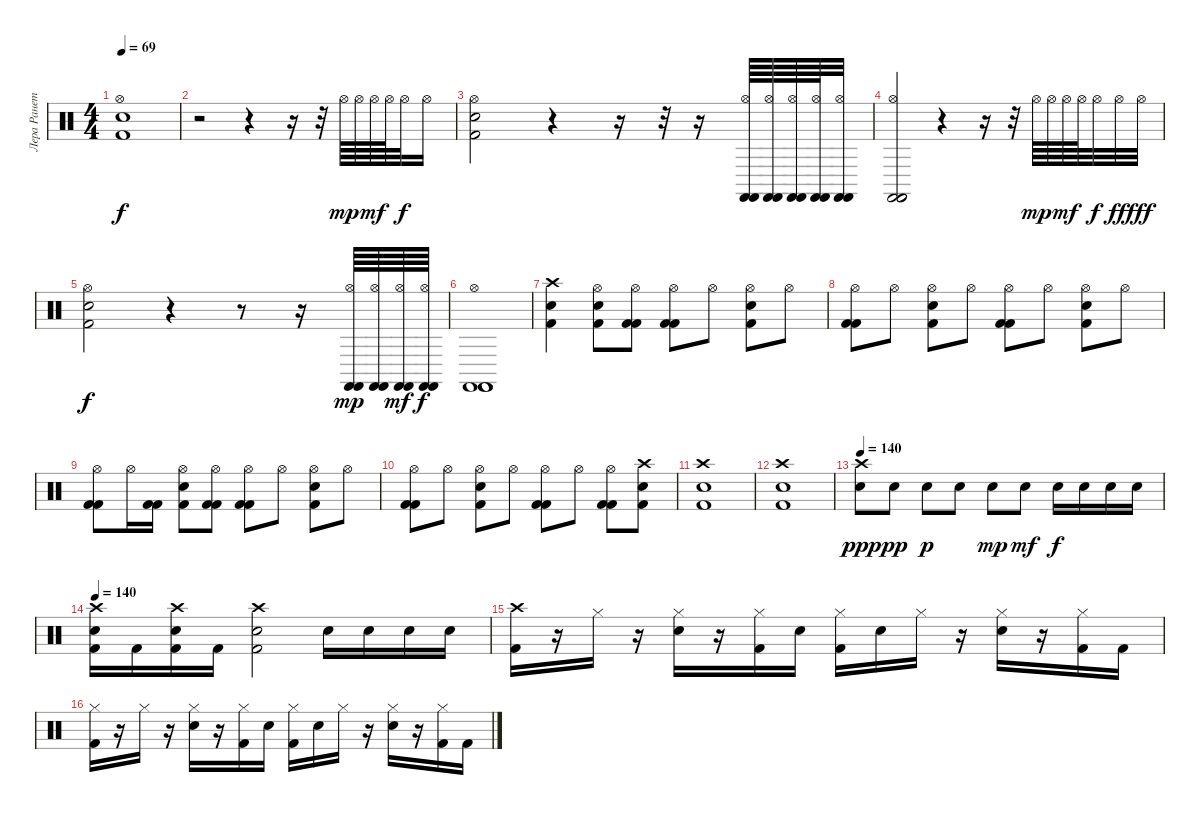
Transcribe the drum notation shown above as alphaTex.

\track ("Лера Ранетка" "Лера Ранет") {instrument percussion}
\staff {score}
\articulation defaults
\ts (4 4)
\tempo 69
\clef neutral
\ks c
("Hi-Hat (open)" "Snare (hit) 2" "Kick (hit) 2").1{dy f} |
r.2 r.4 r.16 r.32 "Hi-Hat (open)".64{dy mp} "Hi-Hat (open)".64 "Hi-Hat (open)".64{dy mf} "Hi-Hat (open)".64 "Hi-Hat (open)".32{dy f} "Hi-Hat (open)".16 |
("Hi-Hat (open)" "Snare (hit) 2" "Kick (hit) 2").2 r.4 r.16 r.32 r.16 ("Castanets (hit)" "Castanets (hit)" "Hi-Hat (open)").64 ("Castanets (hit)" "Castanets (hit)" "Hi-Hat (open)").64 ("Castanets (hit)" "Castanets (hit)" "Hi-Hat (open)").64 ("Castanets (hit)" "Castanets (hit)" "Hi-Hat (open)").64 ("Castanets (hit)" "Castanets (hit)" "Hi-Hat (open)").32 |
("Castanets (hit)" "Castanets (hit)" "Castanets (hit)" "Hi-Hat (open)").2 r.4 r.16 r.32 "Hi-Hat (open)".64{dy mp} "Hi-Hat (open)".64 "Hi-Hat (open)".64{dy mf} "Hi-Hat (open)".64 "Hi-Hat (open)".32{dy f} "Hi-Hat (open)".32{dy ff} "Hi-Hat (open)".32{dy fff} |
("Hi-Hat (open)" "Snare (hit) 2" "Kick (hit) 2").2{dy f} r.4 r.8 r.16 ("Castanets (hit)" "Castanets (hit)" "Hi-Hat (open)").64{dy mp} ("Castanets (hit)" "Castanets (hit)" "Hi-Hat (open)").64 ("Castanets (hit)" "Castanets (hit)" "Hi-Hat (open)").64{dy mf} ("Castanets (hit)" "Castanets (hit)" "Hi-Hat (open)").64{dy f} |
("Castanets (hit)" "Castanets (hit)" "Castanets (hit)" "Hi-Hat (open)").1 |
("Snare (hit) 2" "Kick (hit) 2" "Crash high (hit)").4 ("Snare (hit) 2" "Kick (hit) 2" "Hi-Hat (open)").8 ("Kick (hit) 2" "Kick (hit) 2" "Hi-Hat (open)").8 ("Kick (hit) 2" "Kick (hit) 2" "Hi-Hat (open)").8 "Hi-Hat (open)".8 ("Snare (hit) 2" "Kick (hit) 2" "Hi-Hat (open)").8 "Hi-Hat (open)".8 |
("Kick (hit) 2" "Kick (hit) 2" "Hi-Hat (open)").8 "Hi-Hat (open)".8 ("Snare (hit) 2" "Kick (hit) 2" "Hi-Hat (open)").8 "Hi-Hat (open)".8 ("Kick (hit) 2" "Kick (hit) 2" "Hi-Hat (open)").8 "Hi-Hat (open)".8 ("Snare (hit) 2" "Kick (hit) 2" "Hi-Hat (open)").8 "Hi-Hat (open)".8 |
("Kick (hit) 2" "Kick (hit) 2" "Hi-Hat (open)").8 "Hi-Hat (open)".16 ("Kick (hit) 2" "Kick (hit) 2").16 ("Snare (hit) 2" "Kick (hit) 2" "Hi-Hat (open)").8 ("Kick (hit) 2" "Kick (hit) 2" "Hi-Hat (open)").8 ("Kick (hit) 2" "Kick (hit) 2" "Hi-Hat (open)").8 "Hi-Hat (open)".8 ("Snare (hit) 2" "Kick (hit) 2" "Hi-Hat (open)").8 "Hi-Hat (open)".8 |
("Kick (hit) 2" "Kick (hit) 2" "Hi-Hat (open)").8 "Hi-Hat (open)".8 ("Snare (hit) 2" "Kick (hit) 2" "Hi-Hat (open)").8 "Hi-Hat (open)".8 ("Kick (hit) 2" "Kick (hit) 2" "Hi-Hat (open)").8 "Hi-Hat (open)".8 ("Kick (hit) 2" "Kick (hit) 2" "Hi-Hat (open)").8 ("Snare (hit) 2" "Kick (hit) 2" "Crash high (hit)").8 |
("Snare (hit) 2" "Kick (hit) 2" "Crash high (hit)").1 |
("Snare (hit) 2" "Kick (hit) 2" "Crash high (hit)").1 |
\tempo 140
("Crash high (hit)" "Snare (hit) 2").8{dy ppp} "Snare (hit) 2".8{dy pp} "Snare (hit) 2".8{dy p} "Snare (hit) 2".8 "Snare (hit) 2".8{dy mp} "Snare (hit) 2".8{dy mf} "Snare (hit) 2".16{dy f} "Snare (hit) 2".16 "Snare (hit) 2".16 "Snare (hit) 2".16 |
\tempo 140
("Snare (hit) 2" "Kick (hit) 2" "Crash high (hit)").16 "Kick (hit) 2".16 ("Snare (hit) 2" "Kick (hit) 2" "Crash high (hit)").16 "Kick (hit) 2".16 ("Snare (hit) 2" "Kick (hit) 2" "Crash high (hit)").2 "Snare (hit) 2".16 "Snare (hit) 2".16 "Snare (hit) 2".16 "Snare (hit) 2".16 |
("Crash high (hit)" "Kick (hit) 2").16 r.16 "Hi-Hat (closed)".16 r.16 ("Hi-Hat (closed)" "Snare (hit) 2").16 r.16 ("Hi-Hat (closed)" "Kick (hit) 2").16 "Snare (hit) 2".16 ("Hi-Hat (closed)" "Kick (hit) 2").16 "Snare (hit) 2".16 "Hi-Hat (closed)".16 r.16 ("Hi-Hat (closed)" "Snare (hit) 2").16 r.16 ("Hi-Hat (closed)" "Kick (hit) 2").16 "Kick (hit) 2".16 |
("Hi-Hat (closed)" "Kick (hit) 2").16 r.16 "Hi-Hat (closed)".16 r.16 ("Hi-Hat (closed)" "Snare (hit) 2").16 r.16 ("Hi-Hat (closed)" "Kick (hit) 2").16 "Snare (hit) 2".16 ("Hi-Hat (closed)" "Kick (hit) 2").16 "Snare (hit) 2".16 "Hi-Hat (closed)".16 r.16 ("Hi-Hat (closed)" "Snare (hit) 2").16 r.16 ("Hi-Hat (closed)" "Kick (hit) 2").16 "Kick (hit) 2".16
